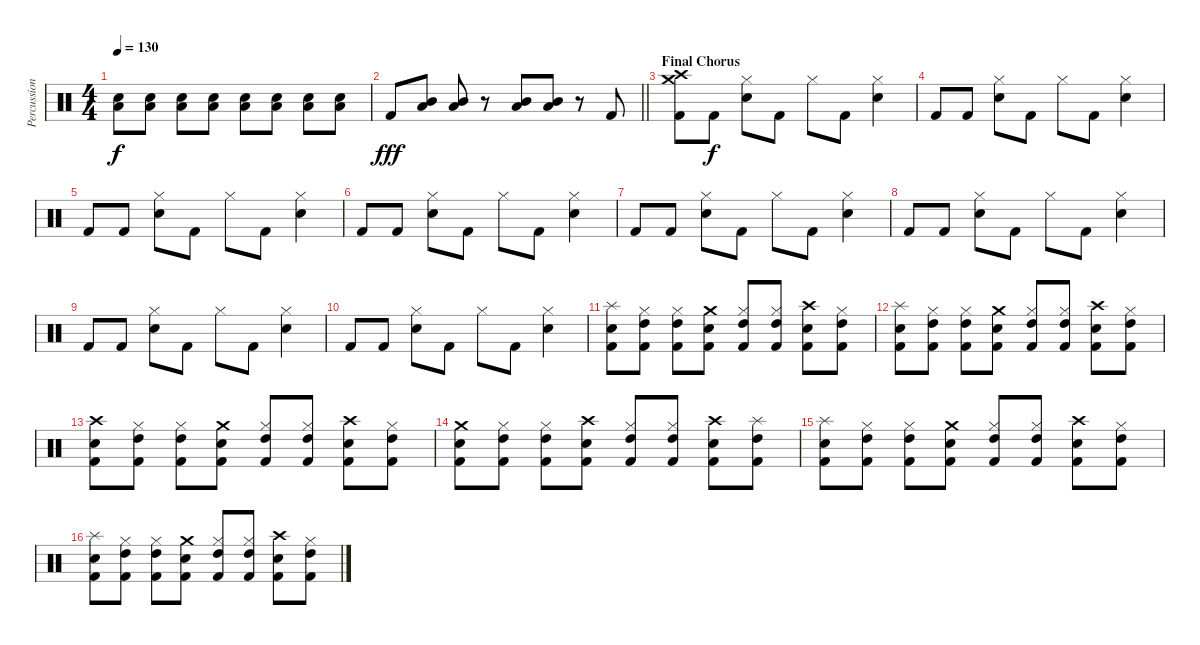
\track ("Percussion" "Percussion") {instrument percussion}
\staff {score}
\articulation defaults
\ts (4 4)
\tempo 130
\clef neutral
\ks c
("Snare (hit) 2" "Low Floor Tom (hit)").8{dy f} ("Snare (hit) 2" "Low Floor Tom (hit)").8 ("Snare (hit) 2" "Low Floor Tom (hit)").8 ("Snare (hit) 2" "Low Floor Tom (hit)").8 ("Snare (hit) 2" "Low Floor Tom (hit)").8 ("Snare (hit) 2" "Low Floor Tom (hit)").8 ("Snare (hit) 2" "Low Floor Tom (hit)").8 ("Snare (hit) 2" "Low Floor Tom (hit)").8 |
\barLineRight lightlight "Kick (hit) 2".8{dy fff}
("Mid Tom (hit)" "Low Tom (hit)").8 ("Mid Tom (hit)" "Low Tom (hit)").8 r.8 ("Mid Tom (hit)" "Low Tom (hit)").8 ("Mid Tom (hit)" "Low Tom (hit)").8 r.8 "Kick (hit) 2".8 |
\section ("" "Final Chorus")
("Crash high (hit)" "Crash medium (hit)" "Kick (hit) 2").8 "Kick (hit) 2".8{dy f} ("Hi-Hat (closed)" "Snare (hit) 2").8 "Kick (hit) 2".8 "Hi-Hat (closed)".8 "Kick (hit) 2".8 ("Hi-Hat (closed)" "Snare (hit) 2").4 |
"Kick (hit) 2".8 "Kick (hit) 2".8 ("Hi-Hat (closed)" "Snare (hit) 2").8 "Kick (hit) 2".8 "Hi-Hat (closed)".8 "Kick (hit) 2".8 ("Hi-Hat (closed)" "Snare (hit) 2").4 |
"Kick (hit) 2".8 "Kick (hit) 2".8 ("Hi-Hat (closed)" "Snare (hit) 2").8 "Kick (hit) 2".8 "Hi-Hat (closed)".8 "Kick (hit) 2".8 ("Hi-Hat (closed)" "Snare (hit) 2").4 |
"Kick (hit) 2".8 "Kick (hit) 2".8 ("Hi-Hat (closed)" "Snare (hit) 2").8 "Kick (hit) 2".8 "Hi-Hat (closed)".8 "Kick (hit) 2".8 ("Hi-Hat (closed)" "Snare (hit) 2").4 |
"Kick (hit) 2".8 "Kick (hit) 2".8 ("Hi-Hat (closed)" "Snare (hit) 2").8 "Kick (hit) 2".8 "Hi-Hat (closed)".8 "Kick (hit) 2".8 ("Hi-Hat (closed)" "Snare (hit) 2").4 |
"Kick (hit) 2".8 "Kick (hit) 2".8 ("Hi-Hat (closed)" "Snare (hit) 2").8 "Kick (hit) 2".8 "Hi-Hat (closed)".8 "Kick (hit) 2".8 ("Hi-Hat (closed)" "Snare (hit) 2").4 |
"Kick (hit) 2".8 "Kick (hit) 2".8 ("Hi-Hat (closed)" "Snare (hit) 2").8 "Kick (hit) 2".8 "Hi-Hat (closed)".8 "Kick (hit) 2".8 ("Hi-Hat (closed)" "Snare (hit) 2").4 |
"Kick (hit) 2".8 "Kick (hit) 2".8 ("Hi-Hat (closed)" "Snare (hit) 2").8 "Kick (hit) 2".8 "Hi-Hat (closed)".8 "Kick (hit) 2".8 ("Hi-Hat (closed)" "Snare (hit) 2").4 |
("Splash (hit)" "Snare (hit) 2" "Kick (hit) 2").8 ("Hi-Hat (closed)" "High Tom (hit)" "Kick (hit) 2").8 ("Hi-Hat (closed)" "High Tom (hit)" "Kick (hit) 2").8 ("Crash medium (hit)" "Snare (hit) 2" "Kick (hit) 2").8 ("Hi-Hat (closed)" "High Tom (hit)" "Kick (hit) 2").8 ("Hi-Hat (closed)" "High Tom (hit)" "Kick (hit) 2").8 ("Crash high (hit)" "Snare (hit) 2" "Kick (hit) 2").8 ("Hi-Hat (closed)" "High Tom (hit)" "Kick (hit) 2").8 |
("Splash (hit)" "Snare (hit) 2" "Kick (hit) 2").8 ("Hi-Hat (closed)" "High Tom (hit)" "Kick (hit) 2").8 ("Hi-Hat (closed)" "High Tom (hit)" "Kick (hit) 2").8 ("Crash medium (hit)" "Snare (hit) 2" "Kick (hit) 2").8 ("Hi-Hat (closed)" "High Tom (hit)" "Kick (hit) 2").8 ("Hi-Hat (closed)" "High Tom (hit)" "Kick (hit) 2").8 ("Crash high (hit)" "Snare (hit) 2" "Kick (hit) 2").8 ("Hi-Hat (closed)" "High Tom (hit)" "Kick (hit) 2").8 |
("Crash high (hit)" "Snare (hit) 2" "Kick (hit) 2").8 ("Hi-Hat (closed)" "High Tom (hit)" "Kick (hit) 2").8 ("Hi-Hat (closed)" "High Tom (hit)" "Kick (hit) 2").8 ("Crash medium (hit)" "Snare (hit) 2" "Kick (hit) 2").8 ("Hi-Hat (closed)" "High Tom (hit)" "Kick (hit) 2").8 ("Hi-Hat (closed)" "High Tom (hit)" "Kick (hit) 2").8 ("Crash high (hit)" "Snare (hit) 2" "Kick (hit) 2").8 ("Hi-Hat (closed)" "High Tom (hit)" "Kick (hit) 2").8 |
("Crash medium (hit)" "Snare (hit) 2" "Kick (hit) 2").8 ("Hi-Hat (closed)" "High Tom (hit)" "Kick (hit) 2").8 ("Hi-Hat (closed)" "High Tom (hit)" "Kick (hit) 2").8 ("Crash high (hit)" "Snare (hit) 2" "Kick (hit) 2").8 ("Hi-Hat (closed)" "High Tom (hit)" "Kick (hit) 2").8 ("Hi-Hat (closed)" "High Tom (hit)" "Kick (hit) 2").8 ("Crash high (hit)" "Snare (hit) 2" "Kick (hit) 2").8 ("Splash (hit)" "High Tom (hit)" "Kick (hit) 2").8 |
("Splash (hit)" "Snare (hit) 2" "Kick (hit) 2").8 ("Hi-Hat (closed)" "High Tom (hit)" "Kick (hit) 2").8 ("Hi-Hat (closed)" "High Tom (hit)" "Kick (hit) 2").8 ("Crash medium (hit)" "Snare (hit) 2" "Kick (hit) 2").8 ("Hi-Hat (closed)" "High Tom (hit)" "Kick (hit) 2").8 ("Hi-Hat (closed)" "High Tom (hit)" "Kick (hit) 2").8 ("Crash high (hit)" "Snare (hit) 2" "Kick (hit) 2").8 ("Hi-Hat (closed)" "High Tom (hit)" "Kick (hit) 2").8 |
("Splash (hit)" "Snare (hit) 2" "Kick (hit) 2").8 ("Hi-Hat (closed)" "High Tom (hit)" "Kick (hit) 2").8 ("Hi-Hat (closed)" "High Tom (hit)" "Kick (hit) 2").8 ("Crash medium (hit)" "Snare (hit) 2" "Kick (hit) 2").8 ("Hi-Hat (closed)" "High Tom (hit)" "Kick (hit) 2").8 ("Hi-Hat (closed)" "High Tom (hit)" "Kick (hit) 2").8 ("Crash high (hit)" "Snare (hit) 2" "Kick (hit) 2").8 ("Hi-Hat (closed)" "High Tom (hit)" "Kick (hit) 2").8
